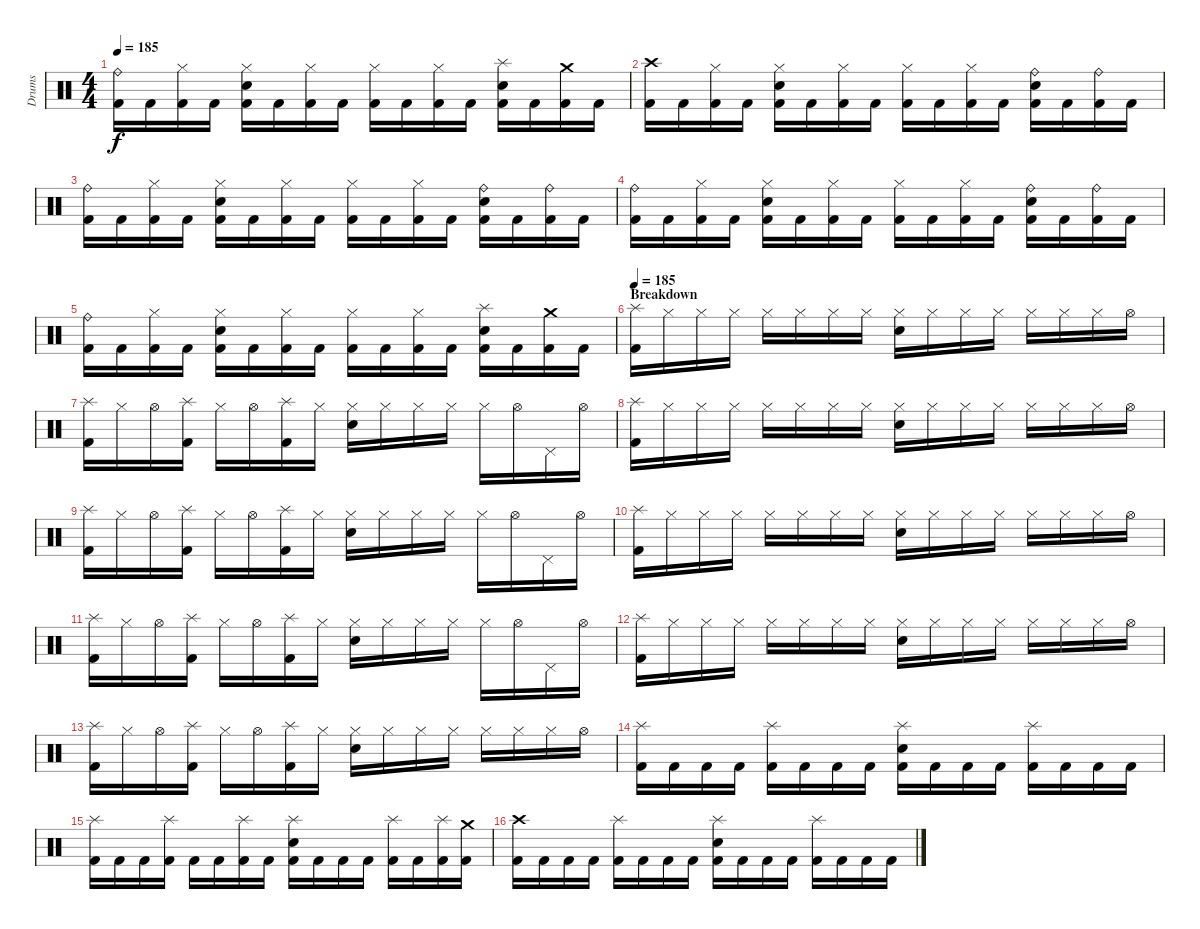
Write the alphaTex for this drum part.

\track ("Drums" "Drums") {instrument percussion}
\staff {score}
\articulation defaults
\ts (4 4)
\tempo 185
\clef neutral
\ks c
("Ride (bell)" "Kick (hit) 2").16{dy f} "Kick (hit) 2".16 ("Hi-Hat (closed)" "Kick (hit) 2").16 "Kick (hit) 2".16 ("Hi-Hat (closed)" "Electric Snare (hit)" "Kick (hit) 2").16 "Kick (hit) 2".16 ("Hi-Hat (closed)" "Kick (hit) 2").16 "Kick (hit) 2".16 ("Hi-Hat (closed)" "Kick (hit) 2").16 "Kick (hit) 2".16 ("Hi-Hat (closed)" "Kick (hit) 2").16 "Kick (hit) 2".16 ("Splash (hit)" "Electric Snare (hit)" "Kick (hit) 2").16 "Kick (hit) 2".16 ("Crash medium (hit)" "Kick (hit) 2").16 "Kick (hit) 2".16 |
("Crash high (hit)" "Kick (hit) 2").16 "Kick (hit) 2".16 ("Hi-Hat (closed)" "Kick (hit) 2").16 "Kick (hit) 2".16 ("Hi-Hat (closed)" "Electric Snare (hit)" "Kick (hit) 2").16 "Kick (hit) 2".16 ("Hi-Hat (closed)" "Kick (hit) 2").16 "Kick (hit) 2".16 ("Hi-Hat (closed)" "Kick (hit) 2").16 "Kick (hit) 2".16 ("Hi-Hat (closed)" "Kick (hit) 2").16 "Kick (hit) 2".16 ("Ride (bell)" "Electric Snare (hit)" "Kick (hit) 2").16 "Kick (hit) 2".16 ("Ride (bell)" "Kick (hit) 2").16 "Kick (hit) 2".16 |
("Ride (bell)" "Kick (hit) 2").16 "Kick (hit) 2".16 ("Hi-Hat (closed)" "Kick (hit) 2").16 "Kick (hit) 2".16 ("Hi-Hat (closed)" "Electric Snare (hit)" "Kick (hit) 2").16 "Kick (hit) 2".16 ("Hi-Hat (closed)" "Kick (hit) 2").16 "Kick (hit) 2".16 ("Hi-Hat (closed)" "Kick (hit) 2").16 "Kick (hit) 2".16 ("Hi-Hat (closed)" "Kick (hit) 2").16 "Kick (hit) 2".16 ("Ride (bell)" "Electric Snare (hit)" "Kick (hit) 2").16 "Kick (hit) 2".16 ("Ride (bell)" "Kick (hit) 2").16 "Kick (hit) 2".16 |
("Ride (bell)" "Kick (hit) 2").16 "Kick (hit) 2".16 ("Hi-Hat (closed)" "Kick (hit) 2").16 "Kick (hit) 2".16 ("Hi-Hat (closed)" "Electric Snare (hit)" "Kick (hit) 2").16 "Kick (hit) 2".16 ("Hi-Hat (closed)" "Kick (hit) 2").16 "Kick (hit) 2".16 ("Hi-Hat (closed)" "Kick (hit) 2").16 "Kick (hit) 2".16 ("Hi-Hat (closed)" "Kick (hit) 2").16 "Kick (hit) 2".16 ("Ride (bell)" "Electric Snare (hit)" "Kick (hit) 2").16 "Kick (hit) 2".16 ("Ride (bell)" "Kick (hit) 2").16 "Kick (hit) 2".16 |
("Ride (bell)" "Kick (hit) 2").16 "Kick (hit) 2".16 ("Hi-Hat (closed)" "Kick (hit) 2").16 "Kick (hit) 2".16 ("Hi-Hat (closed)" "Electric Snare (hit)" "Kick (hit) 2").16 "Kick (hit) 2".16 ("Hi-Hat (closed)" "Kick (hit) 2").16 "Kick (hit) 2".16 ("Hi-Hat (closed)" "Kick (hit) 2").16 "Kick (hit) 2".16 ("Hi-Hat (closed)" "Kick (hit) 2").16 "Kick (hit) 2".16 ("Splash (hit)" "Electric Snare (hit)" "Kick (hit) 2").16 "Kick (hit) 2".16 ("Crash medium (hit)" "Kick (hit) 2").16 "Kick (hit) 2".16 |
\section ("" "Breakdown")
\tempo 185
("Splash (hit)" "Kick (hit) 2").16 "Hi-Hat (closed)".16 "Hi-Hat (closed)".16 "Hi-Hat (closed)".16 "Hi-Hat (closed)".16 "Hi-Hat (closed)".16 "Hi-Hat (closed)".16 "Hi-Hat (closed)".16 ("Hi-Hat (closed)" "Electric Snare (hit)").16 "Hi-Hat (closed)".16 "Hi-Hat (closed)".16 "Hi-Hat (closed)".16 "Hi-Hat (closed)".16 "Hi-Hat (closed)".16 "Hi-Hat (closed)".16 "Hi-Hat (open)".16 |
("Splash (hit)" "Kick (hit) 2").16 "Hi-Hat (closed)".16 "Hi-Hat (open)".16 ("Splash (hit)" "Kick (hit) 2").16 "Hi-Hat (closed)".16 "Hi-Hat (open)".16 ("Splash (hit)" "Kick (hit) 2").16 "Hi-Hat (closed)".16 ("Hi-Hat (closed)" "Electric Snare (hit)").16 "Hi-Hat (closed)".16 "Hi-Hat (closed)".16 "Hi-Hat (closed)".16 "Hi-Hat (closed)".16 "Hi-Hat (open)".16 "Pedal Hi-Hat (hit)".16 "Hi-Hat (open)".16 |
("Splash (hit)" "Kick (hit) 2").16 "Hi-Hat (closed)".16 "Hi-Hat (closed)".16 "Hi-Hat (closed)".16 "Hi-Hat (closed)".16 "Hi-Hat (closed)".16 "Hi-Hat (closed)".16 "Hi-Hat (closed)".16 ("Hi-Hat (closed)" "Electric Snare (hit)").16 "Hi-Hat (closed)".16 "Hi-Hat (closed)".16 "Hi-Hat (closed)".16 "Hi-Hat (closed)".16 "Hi-Hat (closed)".16 "Hi-Hat (closed)".16 "Hi-Hat (open)".16 |
("Splash (hit)" "Kick (hit) 2").16 "Hi-Hat (closed)".16 "Hi-Hat (open)".16 ("Splash (hit)" "Kick (hit) 2").16 "Hi-Hat (closed)".16 "Hi-Hat (open)".16 ("Splash (hit)" "Kick (hit) 2").16 "Hi-Hat (closed)".16 ("Hi-Hat (closed)" "Electric Snare (hit)").16 "Hi-Hat (closed)".16 "Hi-Hat (closed)".16 "Hi-Hat (closed)".16 "Hi-Hat (closed)".16 "Hi-Hat (open)".16 "Pedal Hi-Hat (hit)".16 "Hi-Hat (open)".16 |
("Splash (hit)" "Kick (hit) 2").16 "Hi-Hat (closed)".16 "Hi-Hat (closed)".16 "Hi-Hat (closed)".16 "Hi-Hat (closed)".16 "Hi-Hat (closed)".16 "Hi-Hat (closed)".16 "Hi-Hat (closed)".16 ("Hi-Hat (closed)" "Electric Snare (hit)").16 "Hi-Hat (closed)".16 "Hi-Hat (closed)".16 "Hi-Hat (closed)".16 "Hi-Hat (closed)".16 "Hi-Hat (closed)".16 "Hi-Hat (closed)".16 "Hi-Hat (open)".16 |
("Splash (hit)" "Kick (hit) 2").16 "Hi-Hat (closed)".16 "Hi-Hat (open)".16 ("Splash (hit)" "Kick (hit) 2").16 "Hi-Hat (closed)".16 "Hi-Hat (open)".16 ("Splash (hit)" "Kick (hit) 2").16 "Hi-Hat (closed)".16 ("Hi-Hat (closed)" "Electric Snare (hit)").16 "Hi-Hat (closed)".16 "Hi-Hat (closed)".16 "Hi-Hat (closed)".16 "Hi-Hat (closed)".16 "Hi-Hat (open)".16 "Pedal Hi-Hat (hit)".16 "Hi-Hat (open)".16 |
("Splash (hit)" "Kick (hit) 2").16 "Hi-Hat (closed)".16 "Hi-Hat (closed)".16 "Hi-Hat (closed)".16 "Hi-Hat (closed)".16 "Hi-Hat (closed)".16 "Hi-Hat (closed)".16 "Hi-Hat (closed)".16 ("Hi-Hat (closed)" "Electric Snare (hit)").16 "Hi-Hat (closed)".16 "Hi-Hat (closed)".16 "Hi-Hat (closed)".16 "Hi-Hat (closed)".16 "Hi-Hat (closed)".16 "Hi-Hat (closed)".16 "Hi-Hat (open)".16 |
("Splash (hit)" "Kick (hit) 2").16 "Hi-Hat (closed)".16 "Hi-Hat (open)".16 ("Splash (hit)" "Kick (hit) 2").16 "Hi-Hat (closed)".16 "Hi-Hat (open)".16 ("Splash (hit)" "Kick (hit) 2").16 "Hi-Hat (closed)".16 ("Hi-Hat (closed)" "Electric Snare (hit)").16 "Hi-Hat (closed)".16 "Hi-Hat (closed)".16 "Hi-Hat (closed)".16 "Hi-Hat (closed)".16 "Hi-Hat (closed)".16 "Hi-Hat (closed)".16 "Hi-Hat (open)".16 |
("Splash (hit)" "Kick (hit) 2").16 "Kick (hit) 2".16 "Kick (hit) 2".16 "Kick (hit) 2".16 ("Splash (hit)" "Kick (hit) 2").16 "Kick (hit) 2".16 "Kick (hit) 2".16 "Kick (hit) 2".16 ("Splash (hit)" "Electric Snare (hit)" "Kick (hit) 2").16 "Kick (hit) 2".16 "Kick (hit) 2".16 "Kick (hit) 2".16 ("Splash (hit)" "Kick (hit) 2").16 "Kick (hit) 2".16 "Kick (hit) 2".16 "Kick (hit) 2".16 |
("Splash (hit)" "Kick (hit) 2").16 "Kick (hit) 2".16 "Kick (hit) 2".16 ("Splash (hit)" "Kick (hit) 2").16 "Kick (hit) 2".16 "Kick (hit) 2".16 ("Splash (hit)" "Kick (hit) 2").16 "Kick (hit) 2".16 ("Splash (hit)" "Electric Snare (hit)" "Kick (hit) 2").16 "Kick (hit) 2".16 "Kick (hit) 2".16 "Kick (hit) 2".16 ("Splash (hit)" "Kick (hit) 2").16 "Kick (hit) 2".16 ("Splash (hit)" "Kick (hit) 2").16 ("Crash medium (hit)" "Kick (hit) 2").16 |
("Crash high (hit)" "Kick (hit) 2").16 "Kick (hit) 2".16 "Kick (hit) 2".16 "Kick (hit) 2".16 ("Splash (hit)" "Kick (hit) 2").16 "Kick (hit) 2".16 "Kick (hit) 2".16 "Kick (hit) 2".16 ("Splash (hit)" "Electric Snare (hit)" "Kick (hit) 2").16 "Kick (hit) 2".16 "Kick (hit) 2".16 "Kick (hit) 2".16 ("Splash (hit)" "Kick (hit) 2").16 "Kick (hit) 2".16 "Kick (hit) 2".16 "Kick (hit) 2".16
